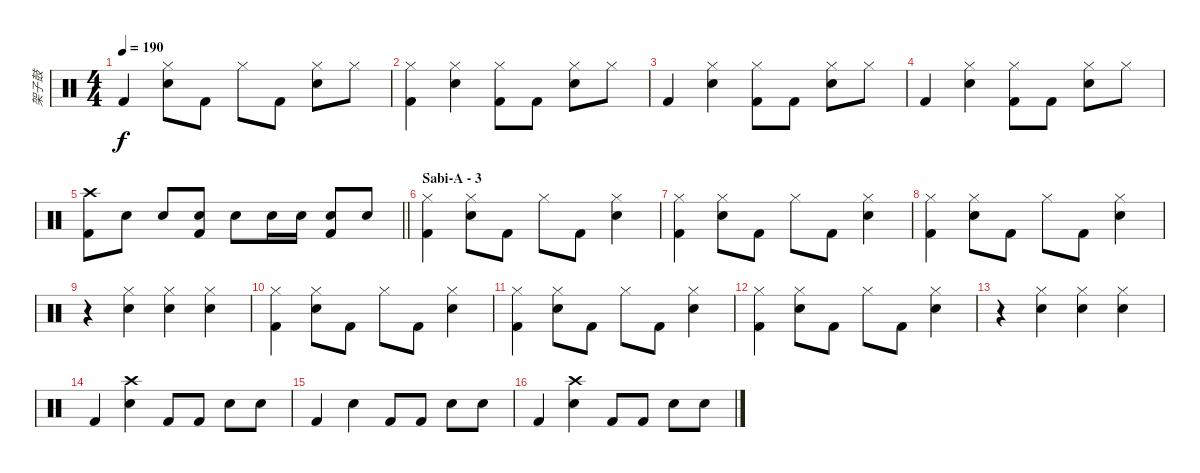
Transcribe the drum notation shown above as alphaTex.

\track ("架子鼓" "架子鼓") {instrument percussion}
\staff {score}
\articulation defaults
\ts (4 4)
\tempo 190
\clef neutral
\ks c "Kick (hit) 2".4{dy f}
("Hi-Hat (closed)" "Electric Snare (hit)").8 "Kick (hit) 2".8 "Hi-Hat (closed)".8 "Kick (hit) 2".8 ("Hi-Hat (closed)" "Electric Snare (hit)").8 "Hi-Hat (closed)".8 |
("Hi-Hat (closed)" "Kick (hit) 2").4 ("Hi-Hat (closed)" "Electric Snare (hit)").4 ("Hi-Hat (closed)" "Kick (hit) 2").8 "Kick (hit) 2".8 ("Hi-Hat (closed)" "Electric Snare (hit)").8 "Hi-Hat (closed)".8 |
"Kick (hit) 2".4 ("Hi-Hat (closed)" "Electric Snare (hit)").4 ("Hi-Hat (closed)" "Kick (hit) 2").8 "Kick (hit) 2".8 ("Hi-Hat (closed)" "Electric Snare (hit)").8 "Hi-Hat (closed)".8 |
"Kick (hit) 2".4 ("Hi-Hat (closed)" "Electric Snare (hit)").4 ("Hi-Hat (closed)" "Kick (hit) 2").8 "Kick (hit) 2".8 ("Hi-Hat (closed)" "Electric Snare (hit)").8 "Hi-Hat (closed)".8 |
\barLineRight lightlight
("Crash high (hit)" "Kick (hit) 2").8 "Snare (hit) 2".8 "Snare (hit) 2".8 ("Snare (hit) 2" "Kick (hit) 2").8 "Snare (hit) 2".8 "Snare (hit) 2".16 "Snare (hit) 2".16 ("Snare (hit) 2" "Kick (hit) 2").8 "Snare (hit) 2".8 |
\section ("" "Sabi-A - 3")
("Hi-Hat (closed)" "Kick (hit) 2").4 ("Hi-Hat (closed)" "Electric Snare (hit)").8 "Kick (hit) 2".8 "Hi-Hat (closed)".8 "Kick (hit) 2".8 ("Hi-Hat (closed)" "Electric Snare (hit)").4 |
("Hi-Hat (closed)" "Kick (hit) 2").4 ("Hi-Hat (closed)" "Electric Snare (hit)").8 "Kick (hit) 2".8 "Hi-Hat (closed)".8 "Kick (hit) 2".8 ("Hi-Hat (closed)" "Electric Snare (hit)").4 |
("Hi-Hat (closed)" "Kick (hit) 2").4 ("Hi-Hat (closed)" "Electric Snare (hit)").8 "Kick (hit) 2".8 "Hi-Hat (closed)".8 "Kick (hit) 2".8 ("Hi-Hat (closed)" "Electric Snare (hit)").4 |
r.4 ("Hi-Hat (closed)" "Electric Snare (hit)").4 ("Hi-Hat (closed)" "Electric Snare (hit)").4 ("Hi-Hat (closed)" "Electric Snare (hit)").4 |
("Hi-Hat (closed)" "Kick (hit) 2").4 ("Hi-Hat (closed)" "Electric Snare (hit)").8 "Kick (hit) 2".8 "Hi-Hat (closed)".8 "Kick (hit) 2".8 ("Hi-Hat (closed)" "Electric Snare (hit)").4 |
("Hi-Hat (closed)" "Kick (hit) 2").4 ("Hi-Hat (closed)" "Electric Snare (hit)").8 "Kick (hit) 2".8 "Hi-Hat (closed)".8 "Kick (hit) 2".8 ("Hi-Hat (closed)" "Electric Snare (hit)").4 |
("Hi-Hat (closed)" "Kick (hit) 2").4 ("Hi-Hat (closed)" "Electric Snare (hit)").8 "Kick (hit) 2".8 "Hi-Hat (closed)".8 "Kick (hit) 2".8 ("Hi-Hat (closed)" "Electric Snare (hit)").4 |
r.4 ("Hi-Hat (closed)" "Electric Snare (hit)").4 ("Hi-Hat (closed)" "Electric Snare (hit)").4 ("Hi-Hat (closed)" "Electric Snare (hit)").4 |
"Kick (hit) 2".4 ("Crash high (hit)" "Electric Snare (hit)").4 "Kick (hit) 2".8 "Kick (hit) 2".8 "Electric Snare (hit)".8 "Electric Snare (hit)".8 |
"Kick (hit) 2".4 "Electric Snare (hit)".4 "Kick (hit) 2".8 "Kick (hit) 2".8 "Electric Snare (hit)".8 "Electric Snare (hit)".8 |
"Kick (hit) 2".4 ("Crash high (hit)" "Electric Snare (hit)").4 "Kick (hit) 2".8 "Kick (hit) 2".8 "Electric Snare (hit)".8 "Electric Snare (hit)".8
